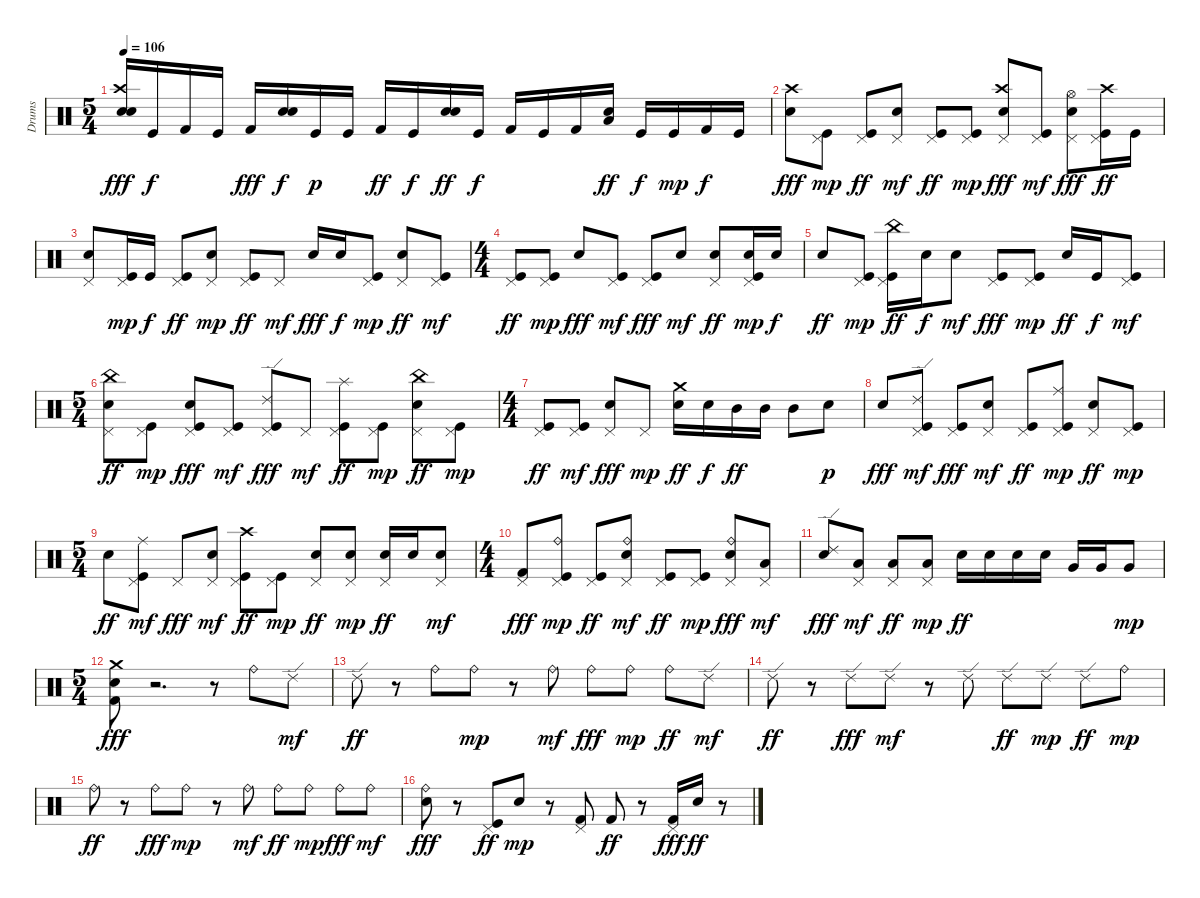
\track ("Drums" "Drums") {instrument percussion}
\staff {score}
\articulation defaults
\ts (5 4)
\tempo 106
\clef neutral
\ks c
("Electric Snare (hit)" "Crash high (hit)" "Snare (hit) 2").16{dy fff} "Kick (hit)".16{dy f} "Kick (hit) 2".16 "Kick (hit)".16 "Kick (hit) 2".16{dy fff} ("Snare (hit) 2" "Electric Snare (hit)").16{dy f} "Kick (hit)".16{dy p} "Kick (hit)".16 "Kick (hit) 2".16{dy ff} "Kick (hit)".16{dy f} ("Snare (hit) 2" "Electric Snare (hit)").16{dy ff} "Kick (hit)".16{dy f} "Kick (hit) 2".16 "Kick (hit)".16 "Kick (hit) 2".16 ("Snare (hit) 2" "Low Tom (hit)").16{dy ff} "Kick (hit)".16{dy f} "Kick (hit)".16{dy mp} "Kick (hit) 2".16{dy f} "Kick (hit)".16 |
("Electric Snare (hit)" "Crash high (hit)").8{dy fff} ("Pedal Hi-Hat (hit)" "Kick (hit)").8{dy mp} ("Pedal Hi-Hat (hit)" "Kick (hit)").8{dy ff} ("Pedal Hi-Hat (hit)" "Electric Snare (hit)").8{dy mf} ("Pedal Hi-Hat (hit)" "Kick (hit)").8{dy ff} ("Pedal Hi-Hat (hit)" "Kick (hit)").8{dy mp} ("Crash high (hit)" "Pedal Hi-Hat (hit)" "Electric Snare (hit)").8{dy fff} ("Pedal Hi-Hat (hit)" "Kick (hit)").8{dy mf} ("Hi-Hat (open)" "Pedal Hi-Hat (hit)" "Electric Snare (hit)").8{dy fff} ("Crash high (hit)" "Pedal Hi-Hat (hit)" "Kick (hit)").16{dy ff} "Kick (hit)".16 |
("Pedal Hi-Hat (hit)" "Electric Snare (hit)").8 ("Kick (hit)" "Pedal Hi-Hat (hit)").16{dy mp} "Kick (hit)".16{dy f} ("Pedal Hi-Hat (hit)" "Kick (hit)").8{dy ff} ("Pedal Hi-Hat (hit)" "Electric Snare (hit)").8{dy mp} ("Pedal Hi-Hat (hit)" "Kick (hit)").8{dy ff} "Pedal Hi-Hat (hit)".8{dy mf} "Electric Snare (hit)".16{dy fff} "Electric Snare (hit)".16{dy f} ("Pedal Hi-Hat (hit)" "Kick (hit)").8{dy mp} ("Pedal Hi-Hat (hit)" "Electric Snare (hit)").8{dy ff} ("Pedal Hi-Hat (hit)" "Kick (hit)").8{dy mf} |
\ts (4 4)
("Kick (hit)" "Pedal Hi-Hat (hit)").8{dy ff} ("Pedal Hi-Hat (hit)" "Kick (hit)").8{dy mp} "Electric Snare (hit)".8{dy fff} ("Pedal Hi-Hat (hit)" "Kick (hit)").8{dy mf} ("Pedal Hi-Hat (hit)" "Kick (hit)").8{dy fff} "Electric Snare (hit)".8{dy mf} ("Pedal Hi-Hat (hit)" "Electric Snare (hit)").8{dy ff} ("Electric Snare (hit)" "Pedal Hi-Hat (hit)" "Kick (hit)").16{dy mp} "Electric Snare (hit)".16{dy f} |
"Electric Snare (hit)".8{dy ff} ("Pedal Hi-Hat (hit)" "Kick (hit)").8{dy mp} ("China (hit)" "Pedal Hi-Hat (hit)" "Kick (hit)").16{dy ff} "Electric Snare (hit)".16{dy f} "Electric Snare (hit)".8{dy mf} ("Pedal Hi-Hat (hit)" "Kick (hit)").8{dy fff} ("Pedal Hi-Hat (hit)" "Kick (hit)").8{dy mp} "Electric Snare (hit)".16{dy ff} "Kick (hit)".16{dy f} ("Pedal Hi-Hat (hit)" "Kick (hit)").8{dy mf} |
\ts (5 4)
("China (hit)" "Pedal Hi-Hat (hit)" "Electric Snare (hit)").8{dy ff} ("Pedal Hi-Hat (hit)" "Kick (hit)").8{dy mp} ("Kick (hit)" "Pedal Hi-Hat (hit)" "Electric Snare (hit)").8{dy fff} ("Pedal Hi-Hat (hit)" "Kick (hit)").8{dy mf} ("Ride (edge) 2" "Pedal Hi-Hat (hit)" "Kick (hit)").8{dy fff} "Pedal Hi-Hat (hit)".8{dy mf} ("Splash (hit)" "Pedal Hi-Hat (hit)" "Kick (hit)").8{dy ff} ("Pedal Hi-Hat (hit)" "Kick (hit)").8{dy mp} ("China (hit)" "Pedal Hi-Hat (hit)" "Electric Snare (hit)").8{dy ff} ("Pedal Hi-Hat (hit)" "Kick (hit)").8{dy mp} |
\ts (4 4)
("Pedal Hi-Hat (hit)" "Kick (hit)").8{dy ff} ("Pedal Hi-Hat (hit)" "Kick (hit)").8{dy mf} ("Pedal Hi-Hat (hit)" "Electric Snare (hit)").8{dy fff} "Pedal Hi-Hat (hit)".8{dy mp} ("Crash medium (hit)" "Electric Snare (hit)").16{dy ff} "Electric Snare (hit)".16{dy f} "Mid Tom (hit)".16{dy ff} "Mid Tom (hit)".16 "Mid Tom (hit)".8 "Electric Snare (hit)".8{dy p} |
"Snare (hit) 2".8{dy fff} ("Ride (edge) 2" "Pedal Hi-Hat (hit)" "Kick (hit)").8{dy mf} ("Pedal Hi-Hat (hit)" "Kick (hit)").8{dy fff} ("Pedal Hi-Hat (hit)" "Snare (hit) 2").8{dy mf} ("Pedal Hi-Hat (hit)" "Kick (hit)").8{dy ff} ("Kick (hit)" "Ride (middle)" "Pedal Hi-Hat (hit)").8{dy mp} ("Pedal Hi-Hat (hit)" "Snare (hit) 2").8{dy ff} ("Pedal Hi-Hat (hit)" "Kick (hit)").8{dy mp} |
\ts (5 4)
"Snare (hit) 2".8{dy ff} ("Ride (middle)" "Pedal Hi-Hat (hit)" "Kick (hit)").8{dy mf} "Pedal Hi-Hat (hit)".8{dy fff} ("Pedal Hi-Hat (hit)" "Snare (hit) 2").8{dy mf} ("Crash high (hit)" "Pedal Hi-Hat (hit)" "Kick (hit)").8{dy ff} ("Pedal Hi-Hat (hit)" "Kick (hit)").8{dy mp} ("Electric Snare (hit)" "Pedal Hi-Hat (hit)").8{dy ff} ("Electric Snare (hit)" "Pedal Hi-Hat (hit)").8{dy mp} ("Electric Snare (hit)" "Pedal Hi-Hat (hit)").16{dy ff} "Electric Snare (hit)".16 ("Electric Snare (hit)" "Pedal Hi-Hat (hit)").8{dy mf} |
\ts (4 4)
("Kick (hit) 2" "Pedal Hi-Hat (hit)").8{dy fff} ("Kick (hit)" "Ride (bell)" "Pedal Hi-Hat (hit)").8{dy mp} ("Pedal Hi-Hat (hit)" "Kick (hit)").8{dy ff} ("Pedal Hi-Hat (hit)" "Ride (bell)" "Electric Snare (hit)").8{dy mf} ("Pedal Hi-Hat (hit)" "Kick (hit)").8{dy ff} ("Pedal Hi-Hat (hit)" "Kick (hit)").8{dy mp} ("Pedal Hi-Hat (hit)" "Ride (bell)" "Electric Snare (hit)").8{dy fff} ("Pedal Hi-Hat (hit)" "Low Floor Tom (hit)").8{dy mf} |
("Ride (edge) 2" "Electric Snare (hit)").8{dy fff} ("Pedal Hi-Hat (hit)" "Low Floor Tom (hit)").8{dy mf} ("Pedal Hi-Hat (hit)" "Low Floor Tom (hit)").8{dy ff} ("Pedal Hi-Hat (hit)" "Low Floor Tom (hit)").8{dy mp} "Electric Snare (hit)".16{dy ff} "Electric Snare (hit)".16 "Electric Snare (hit)".16 "Electric Snare (hit)".16 "Very Low Tom (hit)".16 "Very Low Tom (hit)".16 "Very Low Tom (hit)".8{dy mp} |
\ts (5 4)
("Crash medium (hit)" "Kick (hit) 2" "Electric Snare (hit)").8{dy fff} r.2{d} r.8 "Ride (bell)".8 "Ride (edge) 2".8{dy mf} |
"Ride (edge) 2".8{dy ff} r.8 "Ride (bell)".8 "Ride (bell)".8{dy mp} r.8 "Ride (bell)".8{dy mf} "Ride (bell)".8{dy fff} "Ride (bell)".8{dy mp} "Ride (bell)".8{dy ff} "Ride (edge) 2".8{dy mf} |
"Ride (edge) 2".8{dy ff} r.8 "Ride (edge) 2".8{dy fff} "Ride (edge) 2".8{dy mf} r.8 "Ride (edge) 2".8 "Ride (edge) 2".8{dy ff} "Ride (edge) 2".8{dy mp} "Ride (edge) 2".8{dy ff} "Ride (bell)".8{dy mp} |
"Ride (bell)".8{dy ff} r.8 "Ride (bell)".8{dy fff} "Ride (bell)".8{dy mp} r.8 "Ride (bell)".8{dy mf} "Ride (bell)".8{dy ff} "Ride (bell)".8{dy mp} "Ride (bell)".8{dy fff} "Ride (bell)".8{dy mf} |
("Electric Snare (hit)" "Ride (bell)").8{dy fff} r.8 ("Pedal Hi-Hat (hit)" "Kick (hit)").8{dy ff} "Electric Snare (hit)".8{dy mp} r.8 ("Pedal Hi-Hat (hit)" "Kick (hit) 2").8 "Kick (hit) 2".8{dy ff} r.8 ("Pedal Hi-Hat (hit)" "Kick (hit) 2").16{dy fff} "Electric Snare (hit)".16{dy ff} r.8
